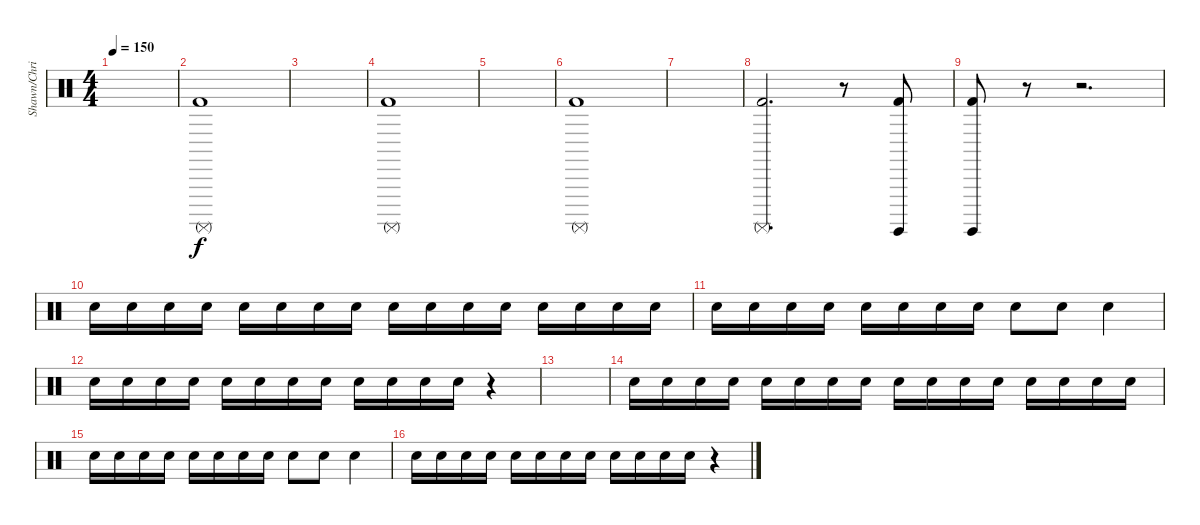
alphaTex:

\track ("Shawn/Chris" "Shawn/Chri") {instrument percussion}
\staff {score}
\articulation defaults
\ts (4 4)
\tempo 150
\clef neutral
\ks c
|
("Surdo (mute)" "Kick (hit) 2").1 |
|
("Surdo (mute)" "Kick (hit) 2").1 |
|
("Surdo (mute)" "Kick (hit) 2").1 |
|
("Surdo (mute)" "Kick (hit) 2").2{d} r.8 ("Surdo (hit)" "Kick (hit) 2").8 |
("Surdo (hit)" "Kick (hit) 2").8 r.8 r.2{d} |
"Snare (hit) 2".16 "Snare (hit) 2".16 "Snare (hit) 2".16 "Snare (hit) 2".16 "Snare (hit) 2".16 "Snare (hit) 2".16 "Snare (hit) 2".16 "Snare (hit) 2".16 "Snare (hit) 2".16 "Snare (hit) 2".16 "Snare (hit) 2".16 "Snare (hit) 2".16 "Snare (hit) 2".16 "Snare (hit) 2".16 "Snare (hit) 2".16 "Snare (hit) 2".16 |
"Snare (hit) 2".16 "Snare (hit) 2".16 "Snare (hit) 2".16 "Snare (hit) 2".16 "Snare (hit) 2".16 "Snare (hit) 2".16 "Snare (hit) 2".16 "Snare (hit) 2".16 "Snare (hit) 2".8 "Snare (hit) 2".8 "Snare (hit) 2".4 |
"Snare (hit) 2".16 "Snare (hit) 2".16 "Snare (hit) 2".16 "Snare (hit) 2".16 "Snare (hit) 2".16 "Snare (hit) 2".16 "Snare (hit) 2".16 "Snare (hit) 2".16 "Snare (hit) 2".16 "Snare (hit) 2".16 "Snare (hit) 2".16 "Snare (hit) 2".16 r.4 |
|
"Snare (hit) 2".16 "Snare (hit) 2".16 "Snare (hit) 2".16 "Snare (hit) 2".16 "Snare (hit) 2".16 "Snare (hit) 2".16 "Snare (hit) 2".16 "Snare (hit) 2".16 "Snare (hit) 2".16 "Snare (hit) 2".16 "Snare (hit) 2".16 "Snare (hit) 2".16 "Snare (hit) 2".16 "Snare (hit) 2".16 "Snare (hit) 2".16 "Snare (hit) 2".16 |
"Snare (hit) 2".16 "Snare (hit) 2".16 "Snare (hit) 2".16 "Snare (hit) 2".16 "Snare (hit) 2".16 "Snare (hit) 2".16 "Snare (hit) 2".16 "Snare (hit) 2".16 "Snare (hit) 2".8 "Snare (hit) 2".8 "Snare (hit) 2".4 |
"Snare (hit) 2".16 "Snare (hit) 2".16 "Snare (hit) 2".16 "Snare (hit) 2".16 "Snare (hit) 2".16 "Snare (hit) 2".16 "Snare (hit) 2".16 "Snare (hit) 2".16 "Snare (hit) 2".16 "Snare (hit) 2".16 "Snare (hit) 2".16 "Snare (hit) 2".16 r.4
